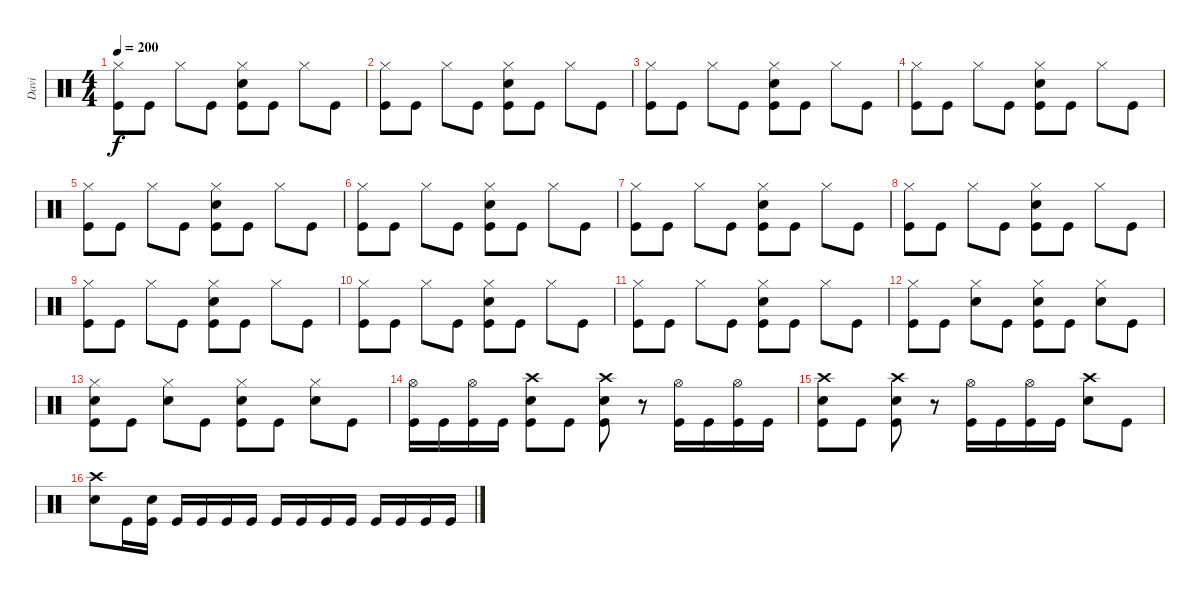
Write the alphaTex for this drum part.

\track ("Davi" "Davi") {instrument percussion}
\staff {score}
\articulation defaults
\ts (4 4)
\tempo 200
\clef neutral
\ks c
("Hi-Hat (closed)" "Kick (hit)").8{dy f} "Kick (hit)".8 "Hi-Hat (closed)".8 "Kick (hit)".8 ("Hi-Hat (closed)" "Electric Snare (hit)" "Kick (hit)").8 "Kick (hit)".8 "Hi-Hat (closed)".8 "Kick (hit)".8 |
("Hi-Hat (closed)" "Kick (hit)").8 "Kick (hit)".8 "Hi-Hat (closed)".8 "Kick (hit)".8 ("Hi-Hat (closed)" "Electric Snare (hit)" "Kick (hit)").8 "Kick (hit)".8 "Hi-Hat (closed)".8 "Kick (hit)".8 |
("Hi-Hat (closed)" "Kick (hit)").8 "Kick (hit)".8 "Hi-Hat (closed)".8 "Kick (hit)".8 ("Hi-Hat (closed)" "Electric Snare (hit)" "Kick (hit)").8 "Kick (hit)".8 "Hi-Hat (closed)".8 "Kick (hit)".8 |
("Hi-Hat (closed)" "Kick (hit)").8 "Kick (hit)".8 "Hi-Hat (closed)".8 "Kick (hit)".8 ("Hi-Hat (closed)" "Electric Snare (hit)" "Kick (hit)").8 "Kick (hit)".8 "Hi-Hat (closed)".8 "Kick (hit)".8 |
("Hi-Hat (closed)" "Kick (hit)").8 "Kick (hit)".8 "Hi-Hat (closed)".8 "Kick (hit)".8 ("Hi-Hat (closed)" "Electric Snare (hit)" "Kick (hit)").8 "Kick (hit)".8 "Hi-Hat (closed)".8 "Kick (hit)".8 |
("Hi-Hat (closed)" "Kick (hit)").8 "Kick (hit)".8 "Hi-Hat (closed)".8 "Kick (hit)".8 ("Hi-Hat (closed)" "Electric Snare (hit)" "Kick (hit)").8 "Kick (hit)".8 "Hi-Hat (closed)".8 "Kick (hit)".8 |
("Hi-Hat (closed)" "Kick (hit)").8 "Kick (hit)".8 "Hi-Hat (closed)".8 "Kick (hit)".8 ("Hi-Hat (closed)" "Electric Snare (hit)" "Kick (hit)").8 "Kick (hit)".8 "Hi-Hat (closed)".8 "Kick (hit)".8 |
("Hi-Hat (closed)" "Kick (hit)").8 "Kick (hit)".8 "Hi-Hat (closed)".8 "Kick (hit)".8 ("Hi-Hat (closed)" "Electric Snare (hit)" "Kick (hit)").8 "Kick (hit)".8 "Hi-Hat (closed)".8 "Kick (hit)".8 |
("Hi-Hat (closed)" "Kick (hit)").8 "Kick (hit)".8 "Hi-Hat (closed)".8 "Kick (hit)".8 ("Hi-Hat (closed)" "Electric Snare (hit)" "Kick (hit)").8 "Kick (hit)".8 "Hi-Hat (closed)".8 "Kick (hit)".8 |
("Hi-Hat (closed)" "Kick (hit)").8 "Kick (hit)".8 "Hi-Hat (closed)".8 "Kick (hit)".8 ("Hi-Hat (closed)" "Electric Snare (hit)" "Kick (hit)").8 "Kick (hit)".8 "Hi-Hat (closed)".8 "Kick (hit)".8 |
("Hi-Hat (closed)" "Kick (hit)").8 "Kick (hit)".8 "Hi-Hat (closed)".8 "Kick (hit)".8 ("Hi-Hat (closed)" "Electric Snare (hit)" "Kick (hit)").8 "Kick (hit)".8 "Hi-Hat (closed)".8 "Kick (hit)".8 |
("Hi-Hat (closed)" "Kick (hit)").8 "Kick (hit)".8 ("Hi-Hat (closed)" "Electric Snare (hit)").8 "Kick (hit)".8 ("Hi-Hat (closed)" "Electric Snare (hit)" "Kick (hit)").8 "Kick (hit)".8 ("Hi-Hat (closed)" "Electric Snare (hit)").8 "Kick (hit)".8 |
("Hi-Hat (closed)" "Electric Snare (hit)" "Kick (hit)").8 "Kick (hit)".8 ("Hi-Hat (closed)" "Electric Snare (hit)").8 "Kick (hit)".8 ("Hi-Hat (closed)" "Electric Snare (hit)" "Kick (hit)").8 "Kick (hit)".8 ("Hi-Hat (closed)" "Electric Snare (hit)").8 "Kick (hit)".8 |
("Hi-Hat (open)" "Kick (hit)").16 "Kick (hit)".16 ("Hi-Hat (open)" "Kick (hit)").16 "Kick (hit)".16 ("Crash high (hit)" "Electric Snare (hit)" "Kick (hit)").8 "Kick (hit)".8 ("Crash high (hit)" "Electric Snare (hit)" "Kick (hit)").8 r.8 ("Hi-Hat (open)" "Kick (hit)").16 "Kick (hit)".16 ("Hi-Hat (open)" "Kick (hit)").16 "Kick (hit)".16 |
("Crash high (hit)" "Electric Snare (hit)" "Kick (hit)").8 "Kick (hit)".8 ("Crash high (hit)" "Electric Snare (hit)" "Kick (hit)").8 r.8 ("Hi-Hat (open)" "Kick (hit)").16 "Kick (hit)".16 ("Hi-Hat (open)" "Kick (hit)").16 "Kick (hit)".16 ("Crash high (hit)" "Electric Snare (hit)").8 "Kick (hit)".8 |
("Crash high (hit)" "Electric Snare (hit)").8 "Kick (hit)".16 ("Electric Snare (hit)" "Kick (hit)").16 "Kick (hit)".16 "Kick (hit)".16 "Kick (hit)".16 "Kick (hit)".16 "Kick (hit)".16 "Kick (hit)".16 "Kick (hit)".16 "Kick (hit)".16 "Kick (hit)".16 "Kick (hit)".16 "Kick (hit)".16 "Kick (hit)".16
